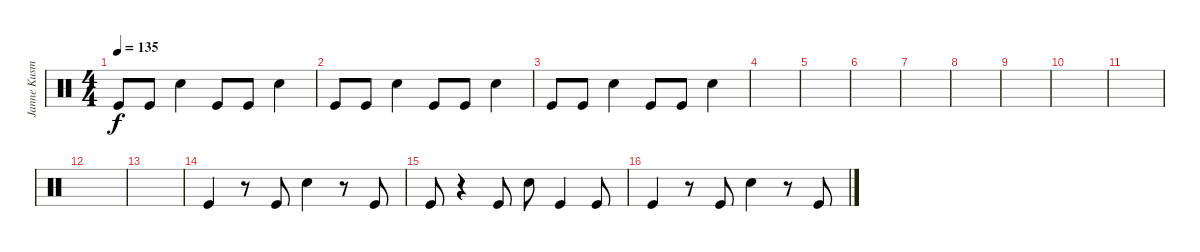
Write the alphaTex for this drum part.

\track ("Janne Kusmin" "Janne Kusm") {instrument percussion}
\staff {score}
\articulation defaults
\ts (4 4)
\tempo 135
\clef neutral
\ks c "Kick (hit)".8{dy f} "Kick (hit)".8 "Snare (hit) 2".4 "Kick (hit)".8 "Kick (hit)".8 "Snare (hit) 2".4
|
"Kick (hit)".8 "Kick (hit)".8 "Snare (hit) 2".4 "Kick (hit)".8 "Kick (hit)".8 "Snare (hit) 2".4 |
"Kick (hit)".8 "Kick (hit)".8 "Snare (hit) 2".4 "Kick (hit)".8 "Kick (hit)".8 "Snare (hit) 2".4 |
|
|
|
|
|
|
|
|
|
|
"Kick (hit)".4 r.8 "Kick (hit)".8 "Electric Snare (hit)".4 r.8 "Kick (hit)".8 |
"Kick (hit)".8 r.4 "Kick (hit)".8 "Electric Snare (hit)".8 "Kick (hit)".4 "Kick (hit)".8 |
"Kick (hit)".4 r.8 "Kick (hit)".8 "Electric Snare (hit)".4 r.8 "Kick (hit)".8
